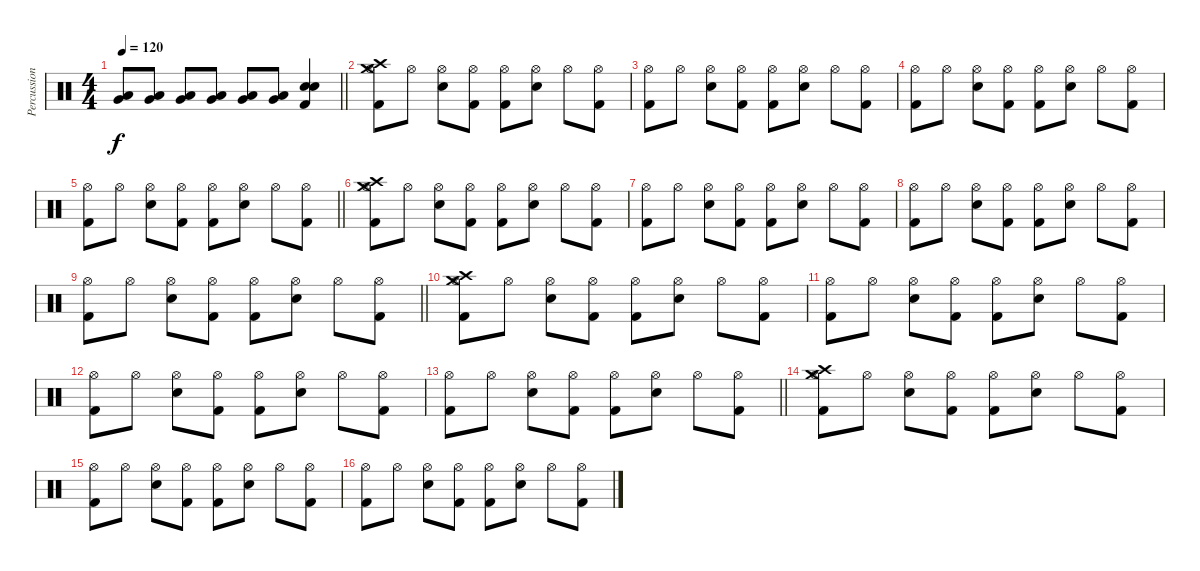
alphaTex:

\track ("Percussion" "Percussion") {instrument percussion}
\staff {score}
\articulation defaults
\ts (4 4)
\tempo 120
\clef neutral
\barLineRight lightlight
\ks c
("Low Floor Tom (hit)" "Very Low Tom (hit)").8{dy f} ("Low Floor Tom (hit)" "Very Low Tom (hit)").8 ("Low Floor Tom (hit)" "Very Low Tom (hit)").8 ("Low Floor Tom (hit)" "Very Low Tom (hit)").8 ("Low Floor Tom (hit)" "Very Low Tom (hit)").8 ("Low Floor Tom (hit)" "Very Low Tom (hit)").8 ("Snare (hit) 2" "Snare (hit) 2" "Kick (hit) 2").4 |
("Crash medium (hit)" "Crash high (hit)" "Hi-Hat (open)" "Kick (hit) 2").8 "Hi-Hat (open)".8 ("Hi-Hat (open)" "Snare (hit) 2").8 ("Hi-Hat (open)" "Kick (hit) 2").8 ("Hi-Hat (open)" "Kick (hit) 2").8 ("Hi-Hat (open)" "Snare (hit) 2").8 "Hi-Hat (open)".8 ("Hi-Hat (open)" "Kick (hit) 2").8 |
("Hi-Hat (open)" "Kick (hit) 2").8 "Hi-Hat (open)".8 ("Hi-Hat (open)" "Snare (hit) 2").8 ("Hi-Hat (open)" "Kick (hit) 2").8 ("Hi-Hat (open)" "Kick (hit) 2").8 ("Hi-Hat (open)" "Snare (hit) 2").8 "Hi-Hat (open)".8 ("Hi-Hat (open)" "Kick (hit) 2").8 |
("Hi-Hat (open)" "Kick (hit) 2").8 "Hi-Hat (open)".8 ("Hi-Hat (open)" "Snare (hit) 2").8 ("Hi-Hat (open)" "Kick (hit) 2").8 ("Hi-Hat (open)" "Kick (hit) 2").8 ("Hi-Hat (open)" "Snare (hit) 2").8 "Hi-Hat (open)".8 ("Hi-Hat (open)" "Kick (hit) 2").8 |
\barLineRight lightlight
("Hi-Hat (open)" "Kick (hit) 2").8 "Hi-Hat (open)".8 ("Hi-Hat (open)" "Snare (hit) 2").8 ("Hi-Hat (open)" "Kick (hit) 2").8 ("Hi-Hat (open)" "Kick (hit) 2").8 ("Hi-Hat (open)" "Snare (hit) 2").8 "Hi-Hat (open)".8 ("Hi-Hat (open)" "Kick (hit) 2").8 |
("Crash medium (hit)" "Crash high (hit)" "Hi-Hat (open)" "Kick (hit) 2").8 "Hi-Hat (open)".8 ("Hi-Hat (open)" "Snare (hit) 2").8 ("Hi-Hat (open)" "Kick (hit) 2").8 ("Hi-Hat (open)" "Kick (hit) 2").8 ("Hi-Hat (open)" "Snare (hit) 2").8 "Hi-Hat (open)".8 ("Hi-Hat (open)" "Kick (hit) 2").8 |
("Hi-Hat (open)" "Kick (hit) 2").8 "Hi-Hat (open)".8 ("Hi-Hat (open)" "Snare (hit) 2").8 ("Hi-Hat (open)" "Kick (hit) 2").8 ("Hi-Hat (open)" "Kick (hit) 2").8 ("Hi-Hat (open)" "Snare (hit) 2").8 "Hi-Hat (open)".8 ("Hi-Hat (open)" "Kick (hit) 2").8 |
("Hi-Hat (open)" "Kick (hit) 2").8 "Hi-Hat (open)".8 ("Hi-Hat (open)" "Snare (hit) 2").8 ("Hi-Hat (open)" "Kick (hit) 2").8 ("Hi-Hat (open)" "Kick (hit) 2").8 ("Hi-Hat (open)" "Snare (hit) 2").8 "Hi-Hat (open)".8 ("Hi-Hat (open)" "Kick (hit) 2").8 |
\barLineRight lightlight
("Hi-Hat (open)" "Kick (hit) 2").8 "Hi-Hat (open)".8 ("Hi-Hat (open)" "Snare (hit) 2").8 ("Hi-Hat (open)" "Kick (hit) 2").8 ("Hi-Hat (open)" "Kick (hit) 2").8 ("Hi-Hat (open)" "Snare (hit) 2").8 "Hi-Hat (open)".8 ("Hi-Hat (open)" "Kick (hit) 2").8 |
("Crash medium (hit)" "Crash high (hit)" "Hi-Hat (open)" "Kick (hit) 2").8 "Hi-Hat (open)".8 ("Hi-Hat (open)" "Snare (hit) 2").8 ("Hi-Hat (open)" "Kick (hit) 2").8 ("Hi-Hat (open)" "Kick (hit) 2").8 ("Hi-Hat (open)" "Snare (hit) 2").8 "Hi-Hat (open)".8 ("Hi-Hat (open)" "Kick (hit) 2").8 |
("Hi-Hat (open)" "Kick (hit) 2").8 "Hi-Hat (open)".8 ("Hi-Hat (open)" "Snare (hit) 2").8 ("Hi-Hat (open)" "Kick (hit) 2").8 ("Hi-Hat (open)" "Kick (hit) 2").8 ("Hi-Hat (open)" "Snare (hit) 2").8 "Hi-Hat (open)".8 ("Hi-Hat (open)" "Kick (hit) 2").8 |
("Hi-Hat (open)" "Kick (hit) 2").8 "Hi-Hat (open)".8 ("Hi-Hat (open)" "Snare (hit) 2").8 ("Hi-Hat (open)" "Kick (hit) 2").8 ("Hi-Hat (open)" "Kick (hit) 2").8 ("Hi-Hat (open)" "Snare (hit) 2").8 "Hi-Hat (open)".8 ("Hi-Hat (open)" "Kick (hit) 2").8 |
\barLineRight lightlight
("Hi-Hat (open)" "Kick (hit) 2").8 "Hi-Hat (open)".8 ("Hi-Hat (open)" "Snare (hit) 2").8 ("Hi-Hat (open)" "Kick (hit) 2").8 ("Hi-Hat (open)" "Kick (hit) 2").8 ("Hi-Hat (open)" "Snare (hit) 2").8 "Hi-Hat (open)".8 ("Hi-Hat (open)" "Kick (hit) 2").8 |
("Crash medium (hit)" "Crash high (hit)" "Hi-Hat (open)" "Kick (hit) 2").8 "Hi-Hat (open)".8 ("Hi-Hat (open)" "Snare (hit) 2").8 ("Hi-Hat (open)" "Kick (hit) 2").8 ("Hi-Hat (open)" "Kick (hit) 2").8 ("Hi-Hat (open)" "Snare (hit) 2").8 "Hi-Hat (open)".8 ("Hi-Hat (open)" "Kick (hit) 2").8 |
("Hi-Hat (open)" "Kick (hit) 2").8 "Hi-Hat (open)".8 ("Hi-Hat (open)" "Snare (hit) 2").8 ("Hi-Hat (open)" "Kick (hit) 2").8 ("Hi-Hat (open)" "Kick (hit) 2").8 ("Hi-Hat (open)" "Snare (hit) 2").8 "Hi-Hat (open)".8 ("Hi-Hat (open)" "Kick (hit) 2").8 |
("Hi-Hat (open)" "Kick (hit) 2").8 "Hi-Hat (open)".8 ("Hi-Hat (open)" "Snare (hit) 2").8 ("Hi-Hat (open)" "Kick (hit) 2").8 ("Hi-Hat (open)" "Kick (hit) 2").8 ("Hi-Hat (open)" "Snare (hit) 2").8 "Hi-Hat (open)".8 ("Hi-Hat (open)" "Kick (hit) 2").8
